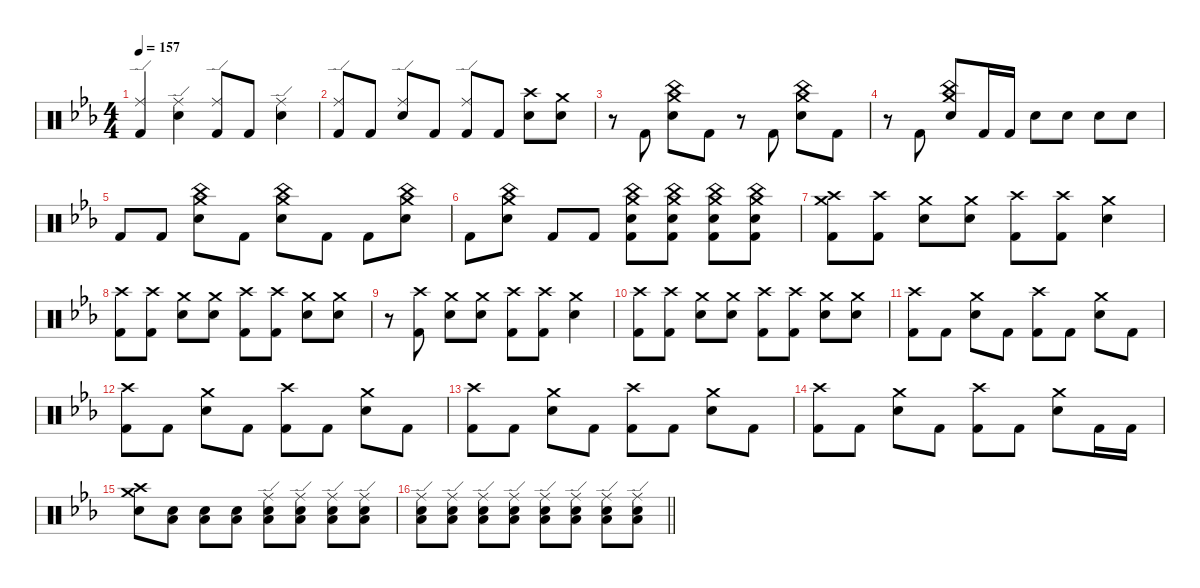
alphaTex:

\defaultSystemsLayout 4
\hideDynamics
\bracketExtendMode nobrackets
\singleTrackTrackNamePolicy hidden
\multiTrackTrackNamePolicy hidden
\firstSystemTrackNameMode fullname
\firstSystemTrackNameOrientation horizontal
\otherSystemsTrackNameOrientation horizontal
\track ("Drums" "drm.") {instrument percussion}
\staff {score}
\articulation defaults
\ts (4 4)
\tempo 157
\clef neutral
\ks cminor
("Ride (edge)"{acc forcenatural} "Kick (hit) 2"{acc forcenatural}).4{dy f beam Up} ("Ride (edge)"{acc forcenatural} "Snare (hit) 2"{acc forcenatural}).4{beam Down} ("Ride (edge)"{acc forcenatural} "Kick (hit) 2"{acc forcenatural}).8{beam Up} "Kick (hit) 2"{acc forcenatural}.8{beam Up} ("Ride (edge)"{acc forcenatural} "Snare (hit) 2"{acc forcenatural}).4{beam Down} |
("Ride (edge)"{acc forcenatural} "Kick (hit) 2"{acc forcenatural}).8{beam Up} "Kick (hit) 2"{acc forcenatural}.8{beam Up} ("Ride (edge)"{acc forcenatural} "Snare (hit) 2"{acc forcenatural}).8{beam Up} "Kick (hit) 2"{acc forcenatural}.8{beam Up} ("Ride (edge)"{acc forcenatural} "Kick (hit) 2"{acc forcenatural}).8{beam Up} "Kick (hit) 2"{acc forcenatural}.8{beam Up} ("Crash high (hit)"{acc forcenatural} "Snare (hit) 2"{acc forcenatural}).8{beam Down} ("Crash medium (hit)"{acc forcenatural} "Snare (hit) 2"{acc forcenatural}).8{beam Down} |
r.8{beam Down} "Kick (hit) 2"{acc forcenatural}.8{beam Up} ("China (hit)"{acc forcenatural} "Crash medium (hit)"{acc forcenatural} "Snare (hit) 2"{acc forcenatural}).8{dy mp beam Down} "Kick (hit) 2"{acc forcenatural}.8{dy f beam Down} r.8{beam Down} "Kick (hit) 2"{acc forcenatural}.8{beam Up} ("China (hit)"{acc forcenatural} "Crash medium (hit)"{acc forcenatural} "Snare (hit) 2"{acc forcenatural}).8{dy mp beam Down} "Kick (hit) 2"{acc forcenatural}.8{dy f beam Down} |
r.8{beam Down} "Kick (hit) 2"{acc forcenatural}.8{beam Up} ("China (hit)"{acc forcenatural} "Crash medium (hit)"{acc forcenatural} "Snare (hit) 2"{acc forcenatural}).8{dy mp beam Up} "Kick (hit) 2"{acc forcenatural}.16{dy f beam Up} "Kick (hit) 2"{acc forcenatural}.16{beam Up} "Snare (hit) 2"{acc forcenatural}.8{beam Down} "Snare (hit) 2"{acc forcenatural}.8{beam Down} "Snare (hit) 2"{acc forcenatural}.8{beam Down} "Snare (hit) 2"{acc forcenatural}.8{beam Down} |
"Kick (hit) 2"{acc forcenatural}.8{beam Up} "Kick (hit) 2"{acc forcenatural}.8{beam Up} ("China (hit)"{acc forcenatural} "Crash medium (hit)"{acc forcenatural} "Snare (hit) 2"{acc forcenatural}).8{dy mp beam Down} "Kick (hit) 2"{acc forcenatural}.8{dy f beam Down} ("China (hit)"{acc forcenatural} "Crash medium (hit)"{acc forcenatural} "Snare (hit) 2"{acc forcenatural}).8{dy mp beam Down} "Kick (hit) 2"{acc forcenatural}.8{dy f beam Down} "Kick (hit) 2"{acc forcenatural}.8{beam Down} ("China (hit)"{acc forcenatural} "Crash medium (hit)"{acc forcenatural} "Snare (hit) 2"{acc forcenatural}).8{dy mp beam Down} |
"Kick (hit) 2"{acc forcenatural}.8{dy f beam Down} ("China (hit)"{acc forcenatural} "Crash medium (hit)"{acc forcenatural} "Snare (hit) 2"{acc forcenatural}).8{dy mp beam Down} "Kick (hit) 2"{acc forcenatural}.8{dy f beam Up} "Kick (hit) 2"{acc forcenatural}.8{beam Up} ("China (hit)"{acc forcenatural} "Crash medium (hit)"{acc forcenatural} "Snare (hit) 2"{acc forcenatural} "Kick (hit) 2"{acc forcenatural}).8{dy mp beam Down} ("China (hit)"{acc forcenatural} "Crash medium (hit)"{acc forcenatural} "Snare (hit) 2"{acc forcenatural} "Kick (hit) 2"{acc forcenatural}).8{beam Down} ("China (hit)"{acc forcenatural} "Crash medium (hit)"{acc forcenatural} "Snare (hit) 2"{acc forcenatural} "Kick (hit) 2"{acc forcenatural}).8{beam Down} ("China (hit)"{acc forcenatural} "Crash medium (hit)"{acc forcenatural} "Snare (hit) 2"{acc forcenatural} "Kick (hit) 2"{acc forcenatural}).8{beam Down} |
("Crash high (hit)"{acc forcenatural} "Crash medium (hit)"{acc forcenatural} "Kick (hit) 2"{acc forcenatural}).8{dy f beam Down} ("Crash high (hit)"{acc forcenatural} "Kick (hit) 2"{acc forcenatural}).8{beam Down} ("Crash medium (hit)"{acc forcenatural} "Snare (hit) 2"{acc forcenatural}).8{beam Down} ("Crash medium (hit)"{acc forcenatural} "Snare (hit) 2"{acc forcenatural}).8{beam Down} ("Crash high (hit)"{acc forcenatural} "Kick (hit) 2"{acc forcenatural}).8{dy p beam Down} ("Crash high (hit)"{acc forcenatural} "Kick (hit) 2"{acc forcenatural}).8{beam Down} ("Crash medium (hit)"{acc forcenatural} "Snare (hit) 2"{acc forcenatural}).4{dy f beam Down} |
("Crash high (hit)"{acc forcenatural} "Kick (hit) 2"{acc forcenatural}).8{dy p beam Down} ("Crash high (hit)"{acc forcenatural} "Kick (hit) 2"{acc forcenatural}).8{beam Down} ("Crash medium (hit)"{acc forcenatural} "Snare (hit) 2"{acc forcenatural}).8{dy f beam Down} ("Crash medium (hit)"{acc forcenatural} "Snare (hit) 2"{acc forcenatural}).8{beam Down} ("Crash high (hit)"{acc forcenatural} "Kick (hit) 2"{acc forcenatural}).8{dy p beam Down} ("Crash high (hit)"{acc forcenatural} "Kick (hit) 2"{acc forcenatural}).8{beam Down} ("Crash medium (hit)"{acc forcenatural} "Snare (hit) 2"{acc forcenatural}).8{dy f beam Down} ("Crash medium (hit)"{acc forcenatural} "Snare (hit) 2"{acc forcenatural}).8{beam Down} |
r.8{beam Down} ("Crash high (hit)"{acc forcenatural} "Kick (hit) 2"{acc forcenatural}).8{dy p beam Down} ("Crash medium (hit)"{acc forcenatural} "Snare (hit) 2"{acc forcenatural}).8{dy f beam Down} ("Crash medium (hit)"{acc forcenatural} "Snare (hit) 2"{acc forcenatural}).8{beam Down} ("Crash high (hit)"{acc forcenatural} "Kick (hit) 2"{acc forcenatural}).8{dy p beam Down} ("Crash high (hit)"{acc forcenatural} "Kick (hit) 2"{acc forcenatural}).8{beam Down} ("Crash medium (hit)"{acc forcenatural} "Snare (hit) 2"{acc forcenatural}).4{dy f beam Down} |
("Crash high (hit)"{acc forcenatural} "Kick (hit) 2"{acc forcenatural}).8{dy p beam Down} ("Crash high (hit)"{acc forcenatural} "Kick (hit) 2"{acc forcenatural}).8{beam Down} ("Crash medium (hit)"{acc forcenatural} "Snare (hit) 2"{acc forcenatural}).8{dy f beam Down} ("Crash medium (hit)"{acc forcenatural} "Snare (hit) 2"{acc forcenatural}).8{beam Down} ("Crash high (hit)"{acc forcenatural} "Kick (hit) 2"{acc forcenatural}).8{dy p beam Down} ("Crash high (hit)"{acc forcenatural} "Kick (hit) 2"{acc forcenatural}).8{beam Down} ("Crash medium (hit)"{acc forcenatural} "Snare (hit) 2"{acc forcenatural}).8{dy f beam Down} ("Crash medium (hit)"{acc forcenatural} "Snare (hit) 2"{acc forcenatural}).8{beam Down} |
("Crash high (hit)"{acc forcenatural} "Kick (hit) 2"{acc forcenatural}).8{dy mp beam Down} "Kick (hit) 2"{acc forcenatural}.8{dy f beam Down} ("Crash medium (hit)"{acc forcenatural} "Snare (hit) 2"{acc forcenatural}).8{beam Down} "Kick (hit) 2"{acc forcenatural}.8{beam Down} ("Crash high (hit)"{acc forcenatural} "Kick (hit) 2"{acc forcenatural}).8{dy p beam Down} "Kick (hit) 2"{acc forcenatural}.8{dy f beam Down} ("Crash medium (hit)"{acc forcenatural} "Snare (hit) 2"{acc forcenatural}).8{beam Down} "Kick (hit) 2"{acc forcenatural}.8{beam Down} |
("Crash high (hit)"{acc forcenatural} "Kick (hit) 2"{acc forcenatural}).8{dy mp beam Down} "Kick (hit) 2"{acc forcenatural}.8{dy f beam Down} ("Crash medium (hit)"{acc forcenatural} "Snare (hit) 2"{acc forcenatural}).8{beam Down} "Kick (hit) 2"{acc forcenatural}.8{beam Down} ("Crash high (hit)"{acc forcenatural} "Kick (hit) 2"{acc forcenatural}).8{dy p beam Down} "Kick (hit) 2"{acc forcenatural}.8{dy f beam Down} ("Crash medium (hit)"{acc forcenatural} "Snare (hit) 2"{acc forcenatural}).8{beam Down} "Kick (hit) 2"{acc forcenatural}.8{beam Down} |
("Crash high (hit)"{acc forcenatural} "Kick (hit) 2"{acc forcenatural}).8{dy mp beam Down} "Kick (hit) 2"{acc forcenatural}.8{dy f beam Down} ("Crash medium (hit)"{acc forcenatural} "Snare (hit) 2"{acc forcenatural}).8{beam Down} "Kick (hit) 2"{acc forcenatural}.8{beam Down} ("Crash high (hit)"{acc forcenatural} "Kick (hit) 2"{acc forcenatural}).8{dy p beam Down} "Kick (hit) 2"{acc forcenatural}.8{dy f beam Down} ("Crash medium (hit)"{acc forcenatural} "Snare (hit) 2"{acc forcenatural}).8{beam Down} "Kick (hit) 2"{acc forcenatural}.8{beam Down} |
("Crash high (hit)"{acc forcenatural} "Kick (hit) 2"{acc forcenatural}).8{dy mp beam Down} "Kick (hit) 2"{acc forcenatural}.8{dy f beam Down} ("Crash medium (hit)"{acc forcenatural} "Snare (hit) 2"{acc forcenatural}).8{beam Down} "Kick (hit) 2"{acc forcenatural}.8{beam Down} ("Crash high (hit)"{acc forcenatural} "Kick (hit) 2"{acc forcenatural}).8{dy p beam Down} "Kick (hit) 2"{acc forcenatural}.8{dy f beam Down} ("Crash medium (hit)"{acc forcenatural} "Snare (hit) 2"{acc forcenatural}).8{beam Down} "Kick (hit) 2"{acc forcenatural}.16{beam Down} "Kick (hit) 2"{acc forcenatural}.16{beam Down} |
("Crash medium (hit)"{acc forcenatural} "Crash high (hit)"{acc forcenatural} "Snare (hit) 2"{acc forcenatural}).8{beam Down} ("Low Floor Tom (hit)"{acc forcenatural} "Snare (hit) 2"{acc forcenatural}).8{dy ppp beam Down} ("Low Floor Tom (hit)"{acc forcenatural} "Snare (hit) 2"{acc forcenatural}).8{beam Down} ("Low Floor Tom (hit)"{acc forcenatural} "Snare (hit) 2"{acc forcenatural}).8{dy pp beam Down} ("Ride (edge)"{acc forcenatural} "Low Floor Tom (hit)"{acc forcenatural} "Snare (hit) 2"{acc forcenatural}).8{dy ppp beam Down} ("Ride (edge)"{acc forcenatural} "Low Floor Tom (hit)"{acc forcenatural} "Snare (hit) 2"{acc forcenatural}).8{beam Down} ("Ride (edge)"{acc forcenatural} "Low Floor Tom (hit)"{acc forcenatural} "Snare (hit) 2"{acc forcenatural}).8{dy pp beam Down} ("Ride (edge)"{acc forcenatural} "Low Floor Tom (hit)"{acc forcenatural} "Snare (hit) 2"{acc forcenatural}).8{beam Down} |
\barLineRight lightlight
("Ride (edge)"{acc forcenatural} "Low Floor Tom (hit)"{acc forcenatural} "Snare (hit) 2"{acc forcenatural}).8{dy p beam Down} ("Ride (edge)"{acc forcenatural} "Low Floor Tom (hit)"{acc forcenatural} "Snare (hit) 2"{acc forcenatural}).8{beam Down} ("Ride (edge)"{acc forcenatural} "Low Floor Tom (hit)"{acc forcenatural} "Snare (hit) 2"{acc forcenatural}).8{dy mp beam Down} ("Ride (edge)"{acc forcenatural} "Low Floor Tom (hit)"{acc forcenatural} "Snare (hit) 2"{acc forcenatural}).8{beam Down} ("Ride (edge)"{acc forcenatural} "Low Floor Tom (hit)"{acc forcenatural} "Snare (hit) 2"{acc forcenatural}).8{dy mf beam Down} ("Ride (edge)"{acc forcenatural} "Low Floor Tom (hit)"{acc forcenatural} "Snare (hit) 2"{acc forcenatural}).8{beam Down} ("Ride (edge)"{acc forcenatural} "Low Floor Tom (hit)"{acc forcenatural} "Snare (hit) 2"{acc forcenatural}).8{dy f beam Down} ("Ride (edge)"{acc forcenatural} "Low Floor Tom (hit)"{acc forcenatural} "Snare (hit) 2"{acc forcenatural}).8{beam Down}
